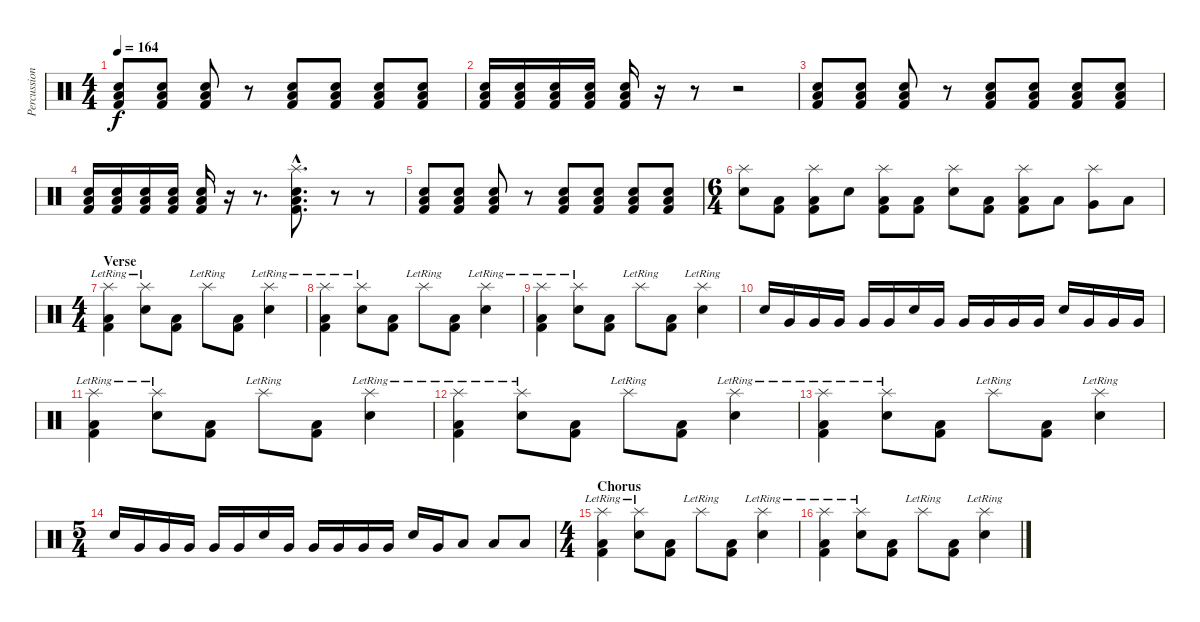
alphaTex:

\track ("Percussion" "Percussion") {instrument percussion}
\staff {score}
\articulation defaults
\ts (4 4)
\tempo 164
\clef neutral
\ks c
("Snare (hit) 2" "Low Floor Tom (hit)" "Kick (hit) 2").8{dy f} ("Snare (hit) 2" "Low Floor Tom (hit)" "Kick (hit) 2").8 ("Snare (hit) 2" "Low Floor Tom (hit)" "Kick (hit) 2").8 r.8 ("Snare (hit) 2" "Low Floor Tom (hit)" "Kick (hit) 2").8 ("Snare (hit) 2" "Low Floor Tom (hit)" "Kick (hit) 2").8 ("Snare (hit) 2" "Low Floor Tom (hit)" "Kick (hit) 2").8 ("Snare (hit) 2" "Low Floor Tom (hit)" "Kick (hit) 2").8 |
("Snare (hit) 2" "Low Floor Tom (hit)" "Kick (hit) 2").16 ("Snare (hit) 2" "Low Floor Tom (hit)" "Kick (hit) 2").16 ("Snare (hit) 2" "Low Floor Tom (hit)" "Kick (hit) 2").16 ("Snare (hit) 2" "Low Floor Tom (hit)" "Kick (hit) 2").16 ("Snare (hit) 2" "Low Floor Tom (hit)" "Kick (hit) 2").16 r.16 r.8 r.2 |
("Snare (hit) 2" "Low Floor Tom (hit)" "Kick (hit) 2").8 ("Snare (hit) 2" "Low Floor Tom (hit)" "Kick (hit) 2").8 ("Snare (hit) 2" "Low Floor Tom (hit)" "Kick (hit) 2").8 r.8 ("Snare (hit) 2" "Low Floor Tom (hit)" "Kick (hit) 2").8 ("Snare (hit) 2" "Low Floor Tom (hit)" "Kick (hit) 2").8 ("Snare (hit) 2" "Low Floor Tom (hit)" "Kick (hit) 2").8 ("Snare (hit) 2" "Low Floor Tom (hit)" "Kick (hit) 2").8 |
("Snare (hit) 2" "Low Floor Tom (hit)" "Kick (hit) 2").16 ("Snare (hit) 2" "Low Floor Tom (hit)" "Kick (hit) 2").16 ("Snare (hit) 2" "Low Floor Tom (hit)" "Kick (hit) 2").16 ("Snare (hit) 2" "Low Floor Tom (hit)" "Kick (hit) 2").16 ("Snare (hit) 2" "Low Floor Tom (hit)" "Kick (hit) 2").16 r.16 r.8{d} ("Splash (hit)"{hac} "Snare (hit) 2"{hac} "Low Floor Tom (hit)"{hac} "Kick (hit) 2"{hac}).8{d} r.8 r.8 |
("Snare (hit) 2" "Low Floor Tom (hit)" "Kick (hit) 2").8 ("Snare (hit) 2" "Low Floor Tom (hit)" "Kick (hit) 2").8 ("Snare (hit) 2" "Low Floor Tom (hit)" "Kick (hit) 2").8 r.8 ("Snare (hit) 2" "Low Floor Tom (hit)" "Kick (hit) 2").8 ("Snare (hit) 2" "Low Floor Tom (hit)" "Kick (hit) 2").8 ("Snare (hit) 2" "Low Floor Tom (hit)" "Kick (hit) 2").8 ("Snare (hit) 2" "Low Floor Tom (hit)" "Kick (hit) 2").8 |
\ts (6 4)
("Splash (hit)" "Snare (hit) 2").8 ("Low Floor Tom (hit)" "Kick (hit) 2").8 ("Splash (hit)" "Low Floor Tom (hit)" "Kick (hit) 2").8 "Snare (hit) 2".8 ("Splash (hit)" "Low Floor Tom (hit)" "Kick (hit) 2").8 ("Low Floor Tom (hit)" "Kick (hit) 2").8 ("Splash (hit)" "Snare (hit) 2").8 ("Low Floor Tom (hit)" "Kick (hit) 2").8 ("Splash (hit)" "Low Floor Tom (hit)" "Kick (hit) 2").8 "Low Tom (hit)".8 ("Splash (hit)" "Very Low Tom (hit)").8 "Low Floor Tom (hit)".8 |
\ts (4 4)
\section ("" "Verse")
("Splash (hit)"{lr} "Low Floor Tom (hit)" "Kick (hit) 2").4 ("Splash (hit)"{lr} "Snare (hit) 2").8 ("Low Floor Tom (hit)" "Kick (hit) 2").8 "Splash (hit)"{lr}.8 ("Low Floor Tom (hit)" "Kick (hit) 2").8 ("Splash (hit)"{lr} "Snare (hit) 2").4 |
("Splash (hit)"{lr} "Low Floor Tom (hit)" "Kick (hit) 2").4 ("Splash (hit)"{lr} "Snare (hit) 2").8 ("Low Floor Tom (hit)" "Kick (hit) 2").8 "Splash (hit)"{lr}.8 ("Low Floor Tom (hit)" "Kick (hit) 2").8 ("Splash (hit)"{lr} "Snare (hit) 2").4 |
("Splash (hit)"{lr} "Low Floor Tom (hit)" "Kick (hit) 2").4 ("Splash (hit)"{lr} "Snare (hit) 2").8 ("Low Floor Tom (hit)" "Kick (hit) 2").8 "Splash (hit)"{lr}.8 ("Low Floor Tom (hit)" "Kick (hit) 2").8 ("Splash (hit)"{lr} "Snare (hit) 2").4 |
"Snare (hit) 2".16 "Very Low Tom (hit)".16 "Very Low Tom (hit)".16 "Very Low Tom (hit)".16 "Very Low Tom (hit)".16 "Very Low Tom (hit)".16 "Snare (hit) 2".16 "Very Low Tom (hit)".16 "Very Low Tom (hit)".16 "Very Low Tom (hit)".16 "Very Low Tom (hit)".16 "Very Low Tom (hit)".16 "Snare (hit) 2".16 "Very Low Tom (hit)".16 "Very Low Tom (hit)".16 "Very Low Tom (hit)".16 |
("Splash (hit)"{lr} "Low Floor Tom (hit)" "Kick (hit) 2").4 ("Splash (hit)"{lr} "Snare (hit) 2").8 ("Low Floor Tom (hit)" "Kick (hit) 2").8 "Splash (hit)"{lr}.8 ("Low Floor Tom (hit)" "Kick (hit) 2").8 ("Splash (hit)"{lr} "Snare (hit) 2").4 |
("Splash (hit)"{lr} "Low Floor Tom (hit)" "Kick (hit) 2").4 ("Splash (hit)"{lr} "Snare (hit) 2").8 ("Low Floor Tom (hit)" "Kick (hit) 2").8 "Splash (hit)"{lr}.8 ("Low Floor Tom (hit)" "Kick (hit) 2").8 ("Splash (hit)"{lr} "Snare (hit) 2").4 |
("Splash (hit)"{lr} "Low Floor Tom (hit)" "Kick (hit) 2").4 ("Splash (hit)"{lr} "Snare (hit) 2").8 ("Low Floor Tom (hit)" "Kick (hit) 2").8 "Splash (hit)"{lr}.8 ("Low Floor Tom (hit)" "Kick (hit) 2").8 ("Splash (hit)"{lr} "Snare (hit) 2").4 |
\ts (5 4)
"Snare (hit) 2".16 "Very Low Tom (hit)".16 "Very Low Tom (hit)".16 "Very Low Tom (hit)".16 "Very Low Tom (hit)".16 "Very Low Tom (hit)".16 "Snare (hit) 2".16 "Very Low Tom (hit)".16 "Very Low Tom (hit)".16 "Very Low Tom (hit)".16 "Very Low Tom (hit)".16 "Very Low Tom (hit)".16 "Snare (hit) 2".16 "Very Low Tom (hit)".16 "Low Tom (hit)".8 "Low Tom (hit)".8 "Low Tom (hit)".8 |
\ts (4 4)
\section ("" "Chorus")
("Splash (hit)"{lr} "Low Floor Tom (hit)" "Kick (hit) 2").4 ("Splash (hit)"{lr} "Snare (hit) 2").8 ("Low Floor Tom (hit)" "Kick (hit) 2").8 "Splash (hit)"{lr}.8 ("Low Floor Tom (hit)" "Kick (hit) 2").8 ("Splash (hit)"{lr} "Snare (hit) 2").4 |
("Splash (hit)"{lr} "Low Floor Tom (hit)" "Kick (hit) 2").4 ("Splash (hit)"{lr} "Snare (hit) 2").8 ("Low Floor Tom (hit)" "Kick (hit) 2").8 "Splash (hit)"{lr}.8 ("Low Floor Tom (hit)" "Kick (hit) 2").8 ("Splash (hit)"{lr} "Snare (hit) 2").4
